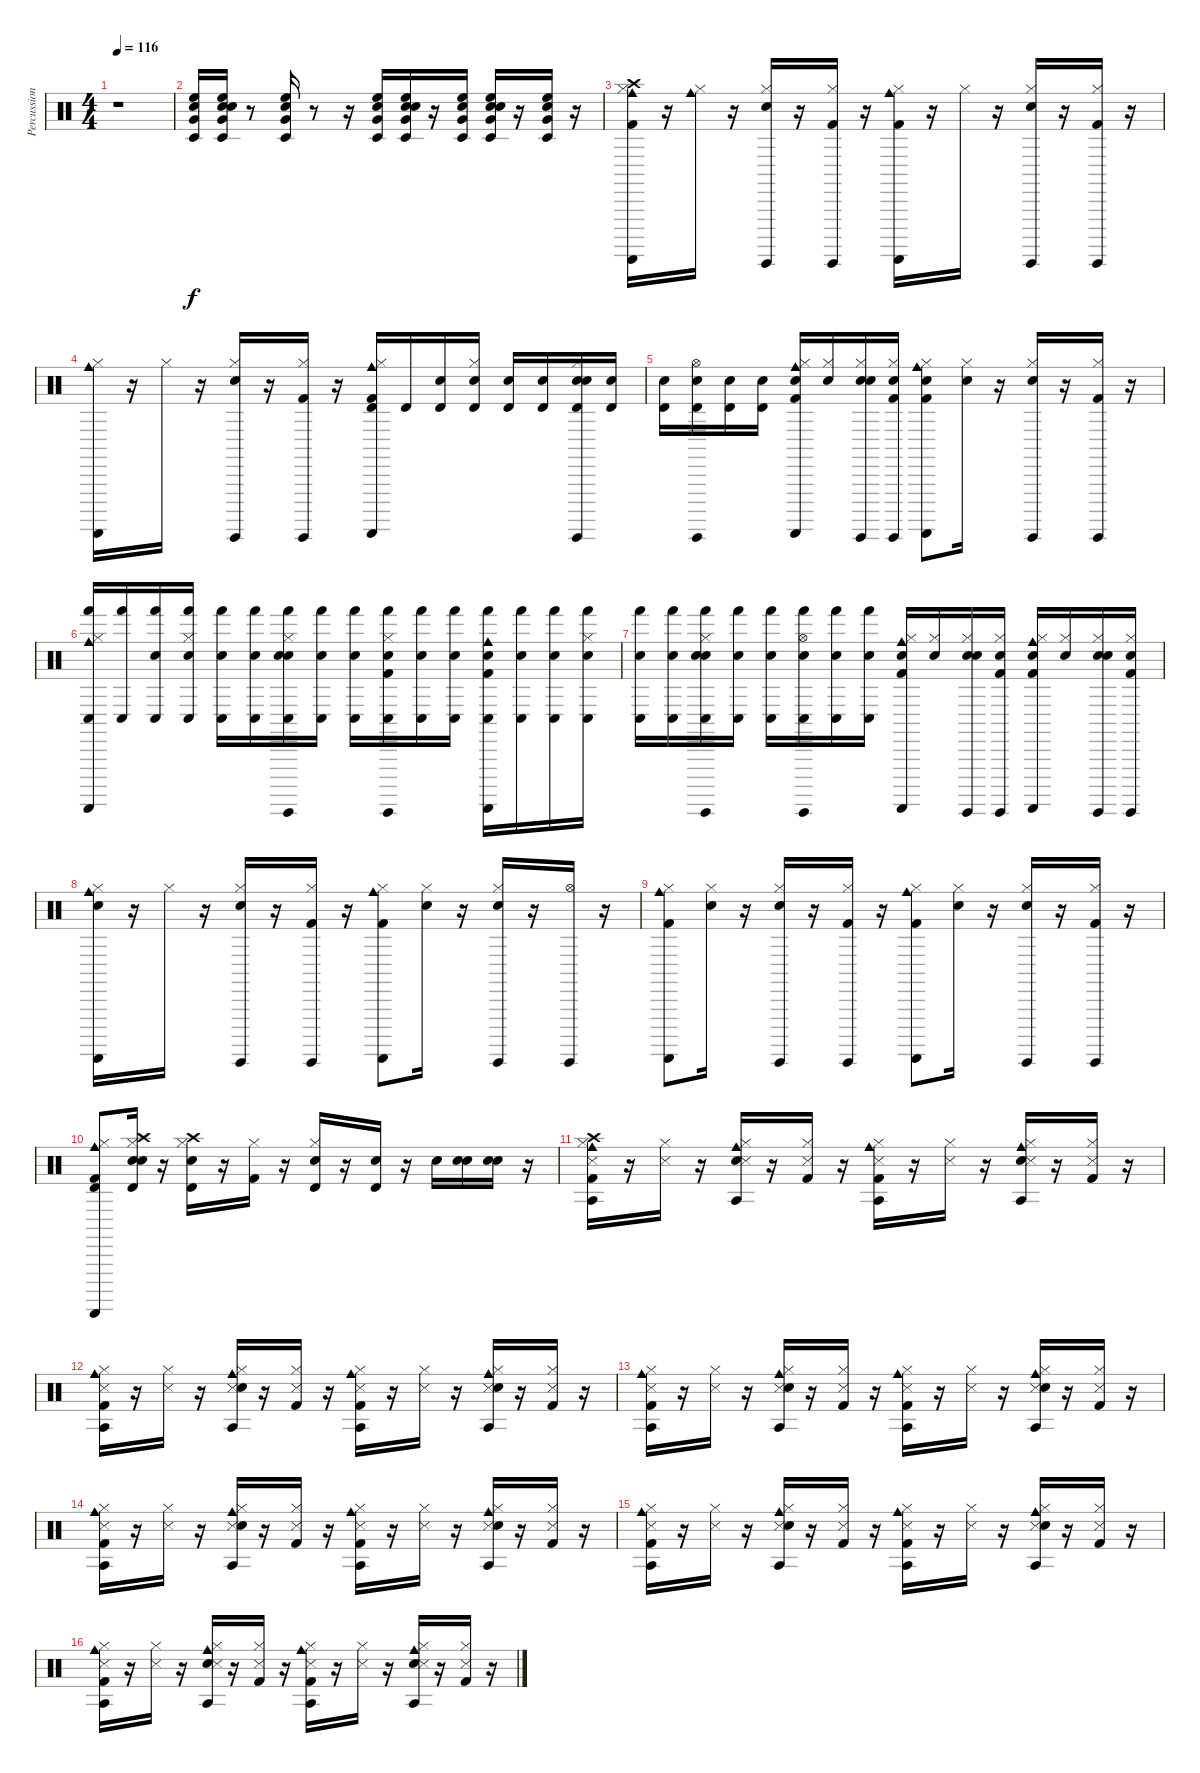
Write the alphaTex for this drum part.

\track ("Percussion" "Percussion") {instrument percussion}
\staff {score}
\articulation defaults
\ts (4 4)
\tempo 116
\clef neutral
\ks c
r.1{dy f} |
("Timbale low (hit)" "Electric Snare (hit)" "High Floor Tom (hit)" "Very Low Tom (hit)").16 ("Snare (hit)" "Very Low Tom (hit)" "Timbale low (hit)" "Electric Snare (hit)" "High Floor Tom (hit)").16 r.8 ("Very Low Tom (hit)" "Timbale low (hit)" "High Floor Tom (hit)" "Electric Snare (hit)").16 r.8 r.16 ("Very Low Tom (hit)" "Electric Snare (hit)" "Timbale low (hit)" "High Floor Tom (hit)").16 ("Snare (hit)" "Very Low Tom (hit)" "Timbale low (hit)" "Electric Snare (hit)" "High Floor Tom (hit)").16 r.16 ("Very Low Tom (hit)" "High Floor Tom (hit)" "Timbale low (hit)" "Electric Snare (hit)").16 ("Snare (hit)" "Very Low Tom (hit)" "High Floor Tom (hit)" "Electric Snare (hit)" "Timbale low (hit)").16 r.16 ("Very Low Tom (hit)" "Electric Snare (hit)" "High Floor Tom (hit)" "Timbale low (hit)").16 r.16 |
("Kick (hit) 2" "Hi-Hat (closed)" "Crash high (hit)" "Guiro (scrap-return)" "Cowbell medium (hit)").16 r.16 ("Cowbell medium (hit)" "Hi-Hat (closed)").16 r.16 ("Guiro (hit)" "Snare (hit) 2" "Hi-Hat (closed)").16 r.16 ("Hi-Hat (closed)" "Kick (hit) 2" "Guiro (hit)").16 r.16 ("Guiro (scrap-return)" "Kick (hit) 2" "Hi-Hat (closed)" "Cowbell medium (hit)").16 r.16 "Hi-Hat (closed)".16 r.16 ("Hi-Hat (closed)" "Guiro (hit)" "Snare (hit) 2").16 r.16 ("Kick (hit) 2" "Guiro (hit)" "Hi-Hat (closed)").16 r.16 |
("Cowbell medium (hit)" "Guiro (scrap-return)" "Hi-Hat (closed)").16 r.16 "Hi-Hat (closed)".16 r.16 ("Guiro (hit)" "Snare (hit) 2" "Hi-Hat (closed)").16 r.16 ("Hi-Hat (closed)" "Kick (hit) 2" "Guiro (hit)").16 r.16 ("Guiro (scrap-return)" "Kick (hit) 2" "Hi-Hat (closed)" "Timbale high (hit)" "Cowbell medium (hit)").16 "Timbale high (hit)".16 ("Snare (hit)" "Timbale high (hit)").16 ("Snare (hit)" "Timbale high (hit)" "Hi-Hat (closed)").16 ("Snare (hit)" "Timbale high (hit)").16 ("Snare (hit)" "Timbale high (hit)").16 ("Snare (hit)" "Timbale high (hit)" "Guiro (hit)" "Snare (hit) 2" "Hi-Hat (closed)").16 ("Snare (hit)" "Timbale high (hit)").16 |
("Snare (hit)" "Timbale high (hit)").16 ("Snare (hit)" "Timbale high (hit)" "Hi-Hat (open)" "Guiro (hit)").16 ("Snare (hit)" "Timbale high (hit)").16 ("Snare (hit)" "Timbale high (hit)").16 ("Snare (hit)" "Guiro (scrap-return)" "Kick (hit) 2" "Hi-Hat (closed)" "Cowbell medium (hit)").16 ("Snare (hit)" "Hi-Hat (closed)").16 ("Snare (hit)" "Guiro (hit)" "Snare (hit) 2" "Hi-Hat (closed)").16 ("Snare (hit)" "Hi-Hat (closed)" "Kick (hit) 2" "Guiro (hit)").16 ("Snare (hit)" "Guiro (scrap-return)" "Kick (hit) 2" "Hi-Hat (closed)" "Cowbell medium (hit)").8 ("Snare (hit)" "Hi-Hat (closed)").16 r.16 ("Guiro (hit)" "Snare (hit) 2" "Hi-Hat (closed)").16 r.16 ("Guiro (hit)" "Hi-Hat (closed)" "Kick (hit) 2").16 r.16 |
("Conga low (hit)" "Guiro (scrap-return)" "Hi-Hat (closed)" "Hand (hit)" "Cowbell medium (hit)").16 ("Conga low (hit)" "Hand (hit)").16 ("Snare (hit)" "Conga low (hit)" "Hand (hit)").16 ("Snare (hit)" "Conga low (hit)" "Hi-Hat (closed)" "Hand (hit)").16 ("Snare (hit)" "Conga low (hit)" "Hand (hit)").16 ("Snare (hit)" "Conga low (hit)" "Hand (hit)").16 ("Snare (hit)" "Conga low (hit)" "Hand (hit)" "Guiro (hit)" "Snare (hit) 2" "Hi-Hat (closed)").16 ("Snare (hit)" "Conga low (hit)" "Hand (hit)").16 ("Snare (hit)" "Conga low (hit)" "Hand (hit)").16 ("Snare (hit)" "Conga low (hit)" "Hand (hit)" "Hi-Hat (closed)" "Kick (hit) 2" "Guiro (hit)").16 ("Snare (hit)" "Conga low (hit)" "Hand (hit)").16 ("Snare (hit)" "Conga low (hit)" "Hand (hit)").16 ("Snare (hit)" "Cowbell medium (hit)" "Hand (hit)" "Guiro (scrap-return)" "Kick (hit) 2" "Conga low (hit)").16 ("Snare (hit)" "Conga low (hit)" "Hand (hit)").16 ("Snare (hit)" "Conga low (hit)" "Hand (hit)").16 ("Snare (hit)" "Conga low (hit)" "Hand (hit)" "Hi-Hat (closed)").16 |
("Snare (hit)" "Hand (hit)" "Conga low (hit)").16 ("Snare (hit)" "Conga low (hit)" "Hand (hit)").16 ("Snare (hit)" "Hand (hit)" "Guiro (hit)" "Snare (hit) 2" "Hi-Hat (closed)" "Conga low (hit)").16 ("Snare (hit)" "Conga low (hit)" "Hand (hit)").16 ("Snare (hit)" "Conga low (hit)" "Hand (hit)").16 ("Snare (hit)" "Conga low (hit)" "Hand (hit)" "Hi-Hat (open)" "Guiro (hit)").16 ("Snare (hit)" "Conga low (hit)" "Hand (hit)").16 ("Snare (hit)" "Conga low (hit)" "Hand (hit)").16 ("Snare (hit)" "Guiro (scrap-return)" "Kick (hit) 2" "Hi-Hat (closed)" "Cowbell medium (hit)").16 ("Snare (hit)" "Hi-Hat (closed)").16 ("Snare (hit)" "Guiro (hit)" "Snare (hit) 2" "Hi-Hat (closed)").16 ("Snare (hit)" "Hi-Hat (closed)" "Kick (hit) 2" "Guiro (hit)").16 ("Snare (hit)" "Cowbell medium (hit)" "Guiro (scrap-return)" "Kick (hit) 2" "Hi-Hat (closed)").16 ("Snare (hit)" "Hi-Hat (closed)").16 ("Snare (hit)" "Guiro (hit)" "Snare (hit) 2" "Hi-Hat (closed)").16 ("Snare (hit)" "Guiro (hit)" "Hi-Hat (closed)" "Kick (hit) 2").16 |
("Snare (hit)" "Cowbell medium (hit)" "Guiro (scrap-return)" "Hi-Hat (closed)").16 r.16 "Hi-Hat (closed)".16 r.16 ("Guiro (hit)" "Snare (hit) 2" "Hi-Hat (closed)").16 r.16 ("Hi-Hat (closed)" "Kick (hit) 2" "Guiro (hit)").16 r.16 ("Guiro (scrap-return)" "Kick (hit) 2" "Hi-Hat (closed)" "Cowbell medium (hit)").8 ("Snare (hit)" "Hi-Hat (closed)").16 r.16 ("Guiro (hit)" "Snare (hit) 2" "Hi-Hat (closed)").16 r.16 ("Hi-Hat (open)" "Guiro (hit)").16 r.16 |
("Guiro (scrap-return)" "Kick (hit) 2" "Hi-Hat (closed)" "Cowbell medium (hit)").8 ("Snare (hit)" "Hi-Hat (closed)").16 r.16 ("Guiro (hit)" "Snare (hit) 2" "Hi-Hat (closed)").16 r.16 ("Hi-Hat (closed)" "Kick (hit) 2" "Guiro (hit)").16 r.16 ("Guiro (scrap-return)" "Kick (hit) 2" "Hi-Hat (closed)" "Cowbell medium (hit)").8 ("Snare (hit)" "Hi-Hat (closed)").16 r.16 ("Guiro (hit)" "Snare (hit) 2" "Hi-Hat (closed)").16 r.16 ("Guiro (hit)" "Hi-Hat (closed)" "Kick (hit) 2").16 r.16 |
("Hi-Hat (closed)" "Guiro (scrap-return)" "Kick (hit) 2" "Timbale high (hit)" "Cowbell medium (hit)").8 ("Snare (hit)" "Crash high (hit)" "Hi-Hat (closed)" "Electric Snare (hit)" "Timbale high (hit)").16 r.16 ("Crash high (hit)" "Hi-Hat (closed)" "Electric Snare (hit)" "Timbale high (hit)").16 r.16 ("Hi-Hat (closed)" "Kick (hit) 2").16 r.16 ("Hi-Hat (closed)" "Timbale high (hit)" "Electric Snare (hit)").16 r.16 ("Electric Snare (hit)" "Timbale high (hit)").16 r.16 "Electric Snare (hit)".16 ("Snare (hit)" "Electric Snare (hit)").16 ("Snare (hit)" "Electric Snare (hit)").16 r.16 |
("Kick (hit) 2" "Hi-Hat (closed)" "Agogo tow (hit)" "Crash high (hit)" "Cowbell medium (hit)" "Snare (side stick) 3").16 r.16 ("Hi-Hat (closed)" "Snare (side stick) 3").16 r.16 ("Snare (hit) 2" "Hi-Hat (closed)" "Agogo tow (hit)" "Cowbell medium (hit)" "Snare (side stick) 3").16 r.16 ("Kick (hit) 2" "Hi-Hat (closed)" "Snare (side stick) 3").16 r.16 ("Kick (hit) 2" "Hi-Hat (closed)" "Agogo tow (hit)" "Cowbell medium (hit)" "Snare (side stick) 3").16 r.16 ("Hi-Hat (closed)" "Snare (side stick) 3").16 r.16 ("Snare (hit) 2" "Hi-Hat (closed)" "Agogo tow (hit)" "Cowbell medium (hit)" "Snare (side stick) 3").16 r.16 ("Kick (hit) 2" "Hi-Hat (closed)" "Snare (side stick) 3").16 r.16 |
("Cowbell medium (hit)" "Snare (side stick) 3" "Hi-Hat (closed)" "Agogo tow (hit)" "Kick (hit) 2").16 r.16 ("Snare (side stick) 3" "Hi-Hat (closed)").16 r.16 ("Cowbell medium (hit)" "Snare (side stick) 3" "Hi-Hat (closed)" "Agogo tow (hit)" "Snare (hit) 2").16 r.16 ("Snare (side stick) 3" "Hi-Hat (closed)" "Kick (hit) 2").16 r.16 ("Cowbell medium (hit)" "Snare (side stick) 3" "Hi-Hat (closed)" "Agogo tow (hit)" "Kick (hit) 2").16 r.16 ("Snare (side stick) 3" "Hi-Hat (closed)").16 r.16 ("Cowbell medium (hit)" "Snare (side stick) 3" "Hi-Hat (closed)" "Agogo tow (hit)" "Snare (hit) 2").16 r.16 ("Snare (side stick) 3" "Hi-Hat (closed)" "Kick (hit) 2").16 r.16 |
("Snare (side stick) 3" "Agogo tow (hit)" "Kick (hit) 2" "Cowbell medium (hit)" "Hi-Hat (closed)").16 r.16 ("Snare (side stick) 3" "Hi-Hat (closed)").16 r.16 ("Snare (side stick) 3" "Agogo tow (hit)" "Snare (hit) 2" "Cowbell medium (hit)" "Hi-Hat (closed)").16 r.16 ("Snare (side stick) 3" "Kick (hit) 2" "Hi-Hat (closed)").16 r.16 ("Snare (side stick) 3" "Agogo tow (hit)" "Kick (hit) 2" "Cowbell medium (hit)" "Hi-Hat (closed)").16 r.16 ("Snare (side stick) 3" "Hi-Hat (closed)").16 r.16 ("Snare (side stick) 3" "Agogo tow (hit)" "Snare (hit) 2" "Cowbell medium (hit)" "Hi-Hat (closed)").16 r.16 ("Snare (side stick) 3" "Kick (hit) 2" "Hi-Hat (closed)").16 r.16 |
("Cowbell medium (hit)" "Agogo tow (hit)" "Snare (side stick) 3" "Kick (hit) 2" "Hi-Hat (closed)").16 r.16 ("Snare (side stick) 3" "Hi-Hat (closed)").16 r.16 ("Cowbell medium (hit)" "Agogo tow (hit)" "Snare (side stick) 3" "Snare (hit) 2" "Hi-Hat (closed)").16 r.16 ("Snare (side stick) 3" "Kick (hit) 2" "Hi-Hat (closed)").16 r.16 ("Cowbell medium (hit)" "Agogo tow (hit)" "Snare (side stick) 3" "Kick (hit) 2" "Hi-Hat (closed)").16 r.16 ("Snare (side stick) 3" "Hi-Hat (closed)").16 r.16 ("Cowbell medium (hit)" "Agogo tow (hit)" "Snare (side stick) 3" "Snare (hit) 2" "Hi-Hat (closed)").16 r.16 ("Snare (side stick) 3" "Kick (hit) 2" "Hi-Hat (closed)").16 r.16 |
("Hi-Hat (closed)" "Cowbell medium (hit)" "Snare (side stick) 3" "Agogo tow (hit)" "Kick (hit) 2").16 r.16 ("Hi-Hat (closed)" "Snare (side stick) 3").16 r.16 ("Hi-Hat (closed)" "Cowbell medium (hit)" "Snare (side stick) 3" "Agogo tow (hit)" "Snare (hit) 2").16 r.16 ("Hi-Hat (closed)" "Snare (side stick) 3" "Kick (hit) 2").16 r.16 ("Hi-Hat (closed)" "Cowbell medium (hit)" "Snare (side stick) 3" "Agogo tow (hit)" "Kick (hit) 2").16 r.16 ("Hi-Hat (closed)" "Snare (side stick) 3").16 r.16 ("Hi-Hat (closed)" "Cowbell medium (hit)" "Snare (side stick) 3" "Agogo tow (hit)" "Snare (hit) 2").16 r.16 ("Hi-Hat (closed)" "Snare (side stick) 3" "Kick (hit) 2").16 r.16 |
("Kick (hit) 2" "Agogo tow (hit)" "Cowbell medium (hit)" "Snare (side stick) 3" "Hi-Hat (closed)").16 r.16 ("Snare (side stick) 3" "Hi-Hat (closed)").16 r.16 ("Snare (hit) 2" "Agogo tow (hit)" "Cowbell medium (hit)" "Snare (side stick) 3" "Hi-Hat (closed)").16 r.16 ("Kick (hit) 2" "Snare (side stick) 3" "Hi-Hat (closed)").16 r.16 ("Kick (hit) 2" "Agogo tow (hit)" "Cowbell medium (hit)" "Snare (side stick) 3" "Hi-Hat (closed)").16 r.16 ("Snare (side stick) 3" "Hi-Hat (closed)").16 r.16 ("Snare (hit) 2" "Agogo tow (hit)" "Cowbell medium (hit)" "Snare (side stick) 3" "Hi-Hat (closed)").16 r.16 ("Kick (hit) 2" "Snare (side stick) 3" "Hi-Hat (closed)").16 r.16
